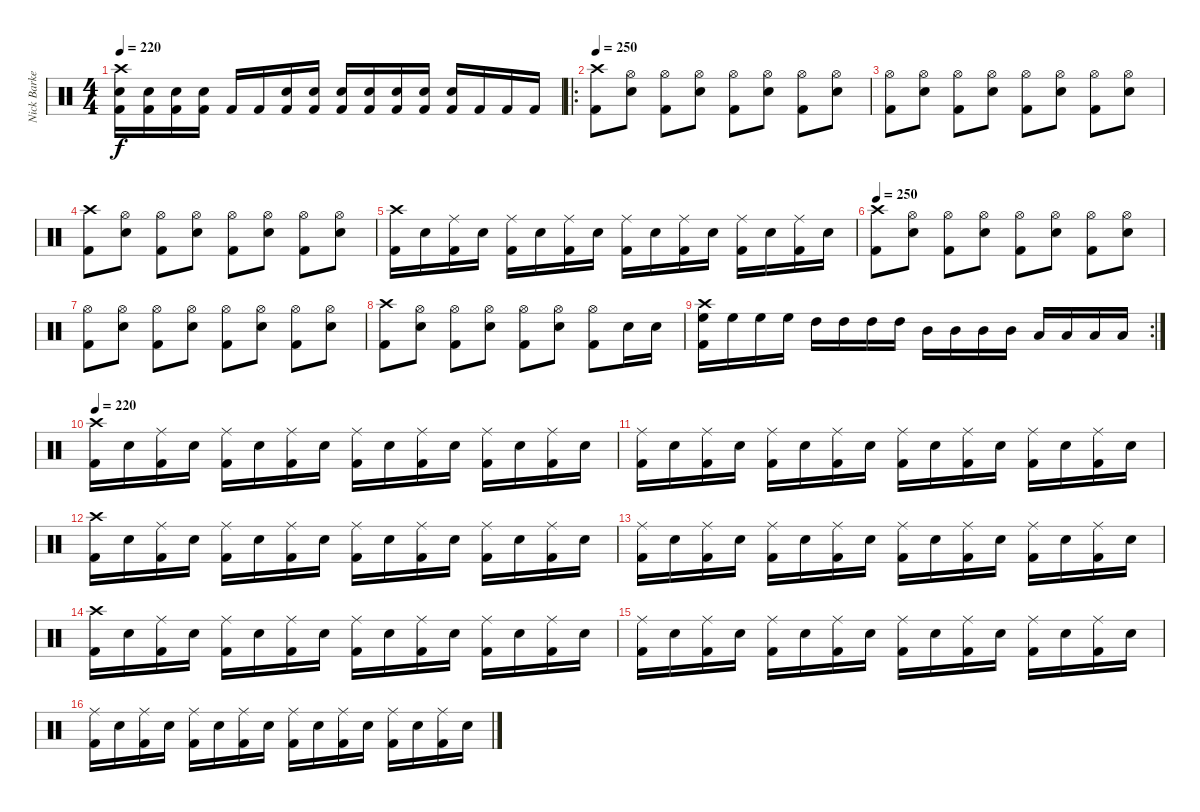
\track ("Nick Barker" "Nick Barke") {instrument percussion}
\staff {score}
\articulation defaults
\ts (4 4)
\tempo 220
\clef neutral
\ks c
("Crash high (hit)" "Electric Snare (hit)" "Kick (hit) 2").16{dy f} ("Electric Snare (hit)" "Kick (hit) 2").16 ("Electric Snare (hit)" "Kick (hit) 2").16 ("Electric Snare (hit)" "Kick (hit) 2").16 "Kick (hit) 2".16 "Kick (hit) 2".16 ("Electric Snare (hit)" "Kick (hit) 2").16 ("Electric Snare (hit)" "Kick (hit) 2").16 ("Electric Snare (hit)" "Kick (hit) 2").16 ("Electric Snare (hit)" "Kick (hit) 2").16 ("Electric Snare (hit)" "Kick (hit) 2").16 ("Electric Snare (hit)" "Kick (hit) 2").16 ("Electric Snare (hit)" "Kick (hit) 2").16 "Kick (hit) 2".16 "Kick (hit) 2".16 "Kick (hit) 2".16 |
\ro
\section ("" "")
\tempo 250
("Crash high (hit)" "Kick (hit) 2").8 ("Hi-Hat (open)" "Electric Snare (hit)").8 ("Hi-Hat (open)" "Kick (hit) 2").8 ("Hi-Hat (open)" "Electric Snare (hit)").8 ("Hi-Hat (open)" "Kick (hit) 2").8 ("Hi-Hat (open)" "Electric Snare (hit)").8 ("Hi-Hat (open)" "Kick (hit) 2").8 ("Hi-Hat (open)" "Electric Snare (hit)").8 |
("Hi-Hat (open)" "Kick (hit) 2").8 ("Hi-Hat (open)" "Electric Snare (hit)").8 ("Hi-Hat (open)" "Kick (hit) 2").8 ("Hi-Hat (open)" "Electric Snare (hit)").8 ("Hi-Hat (open)" "Kick (hit) 2").8 ("Hi-Hat (open)" "Electric Snare (hit)").8 ("Hi-Hat (open)" "Kick (hit) 2").8 ("Hi-Hat (open)" "Electric Snare (hit)").8 |
("Crash high (hit)" "Kick (hit) 2").8 ("Hi-Hat (open)" "Electric Snare (hit)").8 ("Hi-Hat (open)" "Kick (hit) 2").8 ("Hi-Hat (open)" "Electric Snare (hit)").8 ("Hi-Hat (open)" "Kick (hit) 2").8 ("Hi-Hat (open)" "Electric Snare (hit)").8 ("Hi-Hat (open)" "Kick (hit) 2").8 ("Hi-Hat (open)" "Electric Snare (hit)").8 |
("Crash high (hit)" "Kick (hit) 2").16 "Electric Snare (hit)".16 ("Ride (middle)" "Kick (hit) 2").16 "Electric Snare (hit)".16 ("Ride (middle)" "Kick (hit) 2").16 "Electric Snare (hit)".16 ("Ride (middle)" "Kick (hit) 2").16 "Electric Snare (hit)".16 ("Ride (middle)" "Kick (hit) 2").16 "Electric Snare (hit)".16 ("Ride (middle)" "Kick (hit) 2").16 "Electric Snare (hit)".16 ("Ride (middle)" "Kick (hit) 2").16 "Electric Snare (hit)".16 ("Ride (middle)" "Kick (hit) 2").16 "Electric Snare (hit)".16 |
\tempo 250
("Crash high (hit)" "Kick (hit) 2").8 ("Hi-Hat (open)" "Electric Snare (hit)").8 ("Hi-Hat (open)" "Kick (hit) 2").8 ("Hi-Hat (open)" "Electric Snare (hit)").8 ("Hi-Hat (open)" "Kick (hit) 2").8 ("Hi-Hat (open)" "Electric Snare (hit)").8 ("Hi-Hat (open)" "Kick (hit) 2").8 ("Hi-Hat (open)" "Electric Snare (hit)").8 |
("Hi-Hat (open)" "Kick (hit) 2").8 ("Hi-Hat (open)" "Electric Snare (hit)").8 ("Hi-Hat (open)" "Kick (hit) 2").8 ("Hi-Hat (open)" "Electric Snare (hit)").8 ("Hi-Hat (open)" "Kick (hit) 2").8 ("Hi-Hat (open)" "Electric Snare (hit)").8 ("Hi-Hat (open)" "Kick (hit) 2").8 ("Hi-Hat (open)" "Electric Snare (hit)").8 |
("Crash high (hit)" "Kick (hit) 2").8 ("Hi-Hat (open)" "Electric Snare (hit)").8 ("Hi-Hat (open)" "Kick (hit) 2").8 ("Hi-Hat (open)" "Electric Snare (hit)").8 ("Hi-Hat (open)" "Kick (hit) 2").8 ("Hi-Hat (open)" "Electric Snare (hit)").8 ("Hi-Hat (open)" "Kick (hit) 2").8 "Electric Snare (hit)".16 "Electric Snare (hit)".16 |
\rc 2
("Crash high (hit)" "High Floor Tom (hit)" "Kick (hit) 2").16 "High Floor Tom (hit)".16 "High Floor Tom (hit)".16 "High Floor Tom (hit)".16 "High Tom (hit)".16 "High Tom (hit)".16 "High Tom (hit)".16 "High Tom (hit)".16 "Mid Tom (hit)".16 "Mid Tom (hit)".16 "Mid Tom (hit)".16 "Mid Tom (hit)".16 "Low Tom (hit)".16 "Low Tom (hit)".16 "Low Tom (hit)".16 "Low Tom (hit)".16 |
\section ("" "")
\tempo 220
("Crash high (hit)" "Kick (hit) 2").16 "Electric Snare (hit)".16 ("Ride (middle)" "Kick (hit) 2").16 "Electric Snare (hit)".16 ("Ride (middle)" "Kick (hit) 2").16 "Electric Snare (hit)".16 ("Ride (middle)" "Kick (hit) 2").16 "Electric Snare (hit)".16 ("Ride (middle)" "Kick (hit) 2").16 "Electric Snare (hit)".16 ("Ride (middle)" "Kick (hit) 2").16 "Electric Snare (hit)".16 ("Ride (middle)" "Kick (hit) 2").16 "Electric Snare (hit)".16 ("Ride (middle)" "Kick (hit) 2").16 "Electric Snare (hit)".16 |
("Ride (middle)" "Kick (hit) 2").16 "Electric Snare (hit)".16 ("Ride (middle)" "Kick (hit) 2").16 "Electric Snare (hit)".16 ("Ride (middle)" "Kick (hit) 2").16 "Electric Snare (hit)".16 ("Ride (middle)" "Kick (hit) 2").16 "Electric Snare (hit)".16 ("Ride (middle)" "Kick (hit) 2").16 "Electric Snare (hit)".16 ("Ride (middle)" "Kick (hit) 2").16 "Electric Snare (hit)".16 ("Ride (middle)" "Kick (hit) 2").16 "Electric Snare (hit)".16 ("Ride (middle)" "Kick (hit) 2").16 "Electric Snare (hit)".16 |
("Crash high (hit)" "Kick (hit) 2").16 "Electric Snare (hit)".16 ("Ride (middle)" "Kick (hit) 2").16 "Electric Snare (hit)".16 ("Ride (middle)" "Kick (hit) 2").16 "Electric Snare (hit)".16 ("Ride (middle)" "Kick (hit) 2").16 "Electric Snare (hit)".16 ("Ride (middle)" "Kick (hit) 2").16 "Electric Snare (hit)".16 ("Ride (middle)" "Kick (hit) 2").16 "Electric Snare (hit)".16 ("Ride (middle)" "Kick (hit) 2").16 "Electric Snare (hit)".16 ("Ride (middle)" "Kick (hit) 2").16 "Electric Snare (hit)".16 |
("Ride (middle)" "Kick (hit) 2").16 "Electric Snare (hit)".16 ("Ride (middle)" "Kick (hit) 2").16 "Electric Snare (hit)".16 ("Ride (middle)" "Kick (hit) 2").16 "Electric Snare (hit)".16 ("Ride (middle)" "Kick (hit) 2").16 "Electric Snare (hit)".16 ("Ride (middle)" "Kick (hit) 2").16 "Electric Snare (hit)".16 ("Ride (middle)" "Kick (hit) 2").16 "Electric Snare (hit)".16 ("Ride (middle)" "Kick (hit) 2").16 "Electric Snare (hit)".16 ("Ride (middle)" "Kick (hit) 2").16 "Electric Snare (hit)".16 |
("Crash high (hit)" "Kick (hit) 2").16 "Electric Snare (hit)".16 ("Ride (middle)" "Kick (hit) 2").16 "Electric Snare (hit)".16 ("Ride (middle)" "Kick (hit) 2").16 "Electric Snare (hit)".16 ("Ride (middle)" "Kick (hit) 2").16 "Electric Snare (hit)".16 ("Ride (middle)" "Kick (hit) 2").16 "Electric Snare (hit)".16 ("Ride (middle)" "Kick (hit) 2").16 "Electric Snare (hit)".16 ("Ride (middle)" "Kick (hit) 2").16 "Electric Snare (hit)".16 ("Ride (middle)" "Kick (hit) 2").16 "Electric Snare (hit)".16 |
("Ride (middle)" "Kick (hit) 2").16 "Electric Snare (hit)".16 ("Ride (middle)" "Kick (hit) 2").16 "Electric Snare (hit)".16 ("Ride (middle)" "Kick (hit) 2").16 "Electric Snare (hit)".16 ("Ride (middle)" "Kick (hit) 2").16 "Electric Snare (hit)".16 ("Ride (middle)" "Kick (hit) 2").16 "Electric Snare (hit)".16 ("Ride (middle)" "Kick (hit) 2").16 "Electric Snare (hit)".16 ("Ride (middle)" "Kick (hit) 2").16 "Electric Snare (hit)".16 ("Ride (middle)" "Kick (hit) 2").16 "Electric Snare (hit)".16 |
("Ride (middle)" "Kick (hit) 2").16 "Electric Snare (hit)".16 ("Ride (middle)" "Kick (hit) 2").16 "Electric Snare (hit)".16 ("Ride (middle)" "Kick (hit) 2").16 "Electric Snare (hit)".16 ("Ride (middle)" "Kick (hit) 2").16 "Electric Snare (hit)".16 ("Ride (middle)" "Kick (hit) 2").16 "Electric Snare (hit)".16 ("Ride (middle)" "Kick (hit) 2").16 "Electric Snare (hit)".16 ("Ride (middle)" "Kick (hit) 2").16 "Electric Snare (hit)".16 ("Ride (middle)" "Kick (hit) 2").16 "Electric Snare (hit)".16
